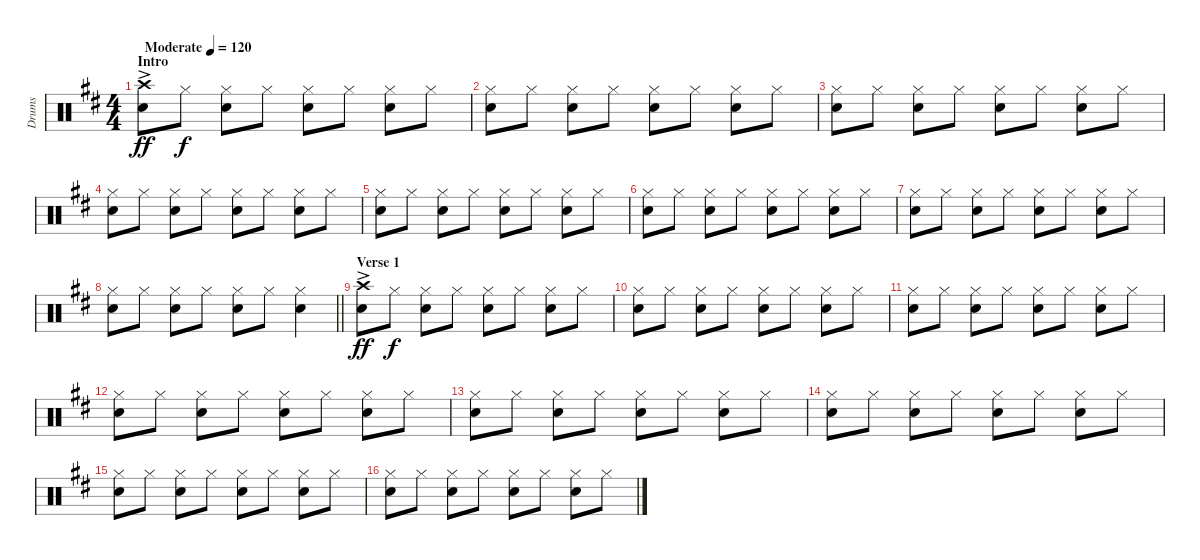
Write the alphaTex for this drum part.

\track ("Drums" "Drums") {instrument percussion}
\staff {score}
\articulation defaults
\ts (4 4)
\section ("" "Intro")
\tempo (120 "Moderate")
\clef neutral
\ks d
("Crash high (hit)"{ac} "Snare (hit) 2").8{dy ff} "Hi-Hat (closed)".8{dy f} ("Hi-Hat (closed)" "Snare (hit) 2").8 "Hi-Hat (closed)".8 ("Hi-Hat (closed)" "Snare (hit) 2").8 "Hi-Hat (closed)".8 ("Hi-Hat (closed)" "Snare (hit) 2").8 "Hi-Hat (closed)".8 |
("Hi-Hat (closed)" "Snare (hit) 2").8 "Hi-Hat (closed)".8 ("Hi-Hat (closed)" "Snare (hit) 2").8 "Hi-Hat (closed)".8 ("Hi-Hat (closed)" "Snare (hit) 2").8 "Hi-Hat (closed)".8 ("Hi-Hat (closed)" "Snare (hit) 2").8 "Hi-Hat (closed)".8 |
("Hi-Hat (closed)" "Snare (hit) 2").8 "Hi-Hat (closed)".8 ("Hi-Hat (closed)" "Snare (hit) 2").8 "Hi-Hat (closed)".8 ("Hi-Hat (closed)" "Snare (hit) 2").8 "Hi-Hat (closed)".8 ("Hi-Hat (closed)" "Snare (hit) 2").8 "Hi-Hat (closed)".8 |
("Hi-Hat (closed)" "Snare (hit) 2").8 "Hi-Hat (closed)".8 ("Hi-Hat (closed)" "Snare (hit) 2").8 "Hi-Hat (closed)".8 ("Hi-Hat (closed)" "Snare (hit) 2").8 "Hi-Hat (closed)".8 ("Hi-Hat (closed)" "Snare (hit) 2").8 "Hi-Hat (closed)".8 |
("Hi-Hat (closed)" "Snare (hit) 2").8 "Hi-Hat (closed)".8 ("Hi-Hat (closed)" "Snare (hit) 2").8 "Hi-Hat (closed)".8 ("Hi-Hat (closed)" "Snare (hit) 2").8 "Hi-Hat (closed)".8 ("Hi-Hat (closed)" "Snare (hit) 2").8 "Hi-Hat (closed)".8 |
("Hi-Hat (closed)" "Snare (hit) 2").8 "Hi-Hat (closed)".8 ("Hi-Hat (closed)" "Snare (hit) 2").8 "Hi-Hat (closed)".8 ("Hi-Hat (closed)" "Snare (hit) 2").8 "Hi-Hat (closed)".8 ("Hi-Hat (closed)" "Snare (hit) 2").8 "Hi-Hat (closed)".8 |
("Hi-Hat (closed)" "Snare (hit) 2").8 "Hi-Hat (closed)".8 ("Hi-Hat (closed)" "Snare (hit) 2").8 "Hi-Hat (closed)".8 ("Hi-Hat (closed)" "Snare (hit) 2").8 "Hi-Hat (closed)".8 ("Hi-Hat (closed)" "Snare (hit) 2").8 "Hi-Hat (closed)".8 |
\barLineRight lightlight
("Hi-Hat (closed)" "Snare (hit) 2").8 "Hi-Hat (closed)".8 ("Hi-Hat (closed)" "Snare (hit) 2").8 "Hi-Hat (closed)".8 ("Hi-Hat (closed)" "Snare (hit) 2").8 "Hi-Hat (closed)".8 ("Hi-Hat (closed)" "Snare (hit) 2").4 |
\section ("" "Verse 1")
("Crash high (hit)"{ac} "Snare (hit) 2").8{dy ff} "Hi-Hat (closed)".8{dy f} ("Hi-Hat (closed)" "Snare (hit) 2").8 "Hi-Hat (closed)".8 ("Hi-Hat (closed)" "Snare (hit) 2").8 "Hi-Hat (closed)".8 ("Hi-Hat (closed)" "Snare (hit) 2").8 "Hi-Hat (closed)".8 |
("Hi-Hat (closed)" "Snare (hit) 2").8 "Hi-Hat (closed)".8 ("Hi-Hat (closed)" "Snare (hit) 2").8 "Hi-Hat (closed)".8 ("Hi-Hat (closed)" "Snare (hit) 2").8 "Hi-Hat (closed)".8 ("Hi-Hat (closed)" "Snare (hit) 2").8 "Hi-Hat (closed)".8 |
("Hi-Hat (closed)" "Snare (hit) 2").8 "Hi-Hat (closed)".8 ("Hi-Hat (closed)" "Snare (hit) 2").8 "Hi-Hat (closed)".8 ("Hi-Hat (closed)" "Snare (hit) 2").8 "Hi-Hat (closed)".8 ("Hi-Hat (closed)" "Snare (hit) 2").8 "Hi-Hat (closed)".8 |
("Hi-Hat (closed)" "Snare (hit) 2").8 "Hi-Hat (closed)".8 ("Hi-Hat (closed)" "Snare (hit) 2").8 "Hi-Hat (closed)".8 ("Hi-Hat (closed)" "Snare (hit) 2").8 "Hi-Hat (closed)".8 ("Hi-Hat (closed)" "Snare (hit) 2").8 "Hi-Hat (closed)".8 |
("Hi-Hat (closed)" "Snare (hit) 2").8 "Hi-Hat (closed)".8 ("Hi-Hat (closed)" "Snare (hit) 2").8 "Hi-Hat (closed)".8 ("Hi-Hat (closed)" "Snare (hit) 2").8 "Hi-Hat (closed)".8 ("Hi-Hat (closed)" "Snare (hit) 2").8 "Hi-Hat (closed)".8 |
("Hi-Hat (closed)" "Snare (hit) 2").8 "Hi-Hat (closed)".8 ("Hi-Hat (closed)" "Snare (hit) 2").8 "Hi-Hat (closed)".8 ("Hi-Hat (closed)" "Snare (hit) 2").8 "Hi-Hat (closed)".8 ("Hi-Hat (closed)" "Snare (hit) 2").8 "Hi-Hat (closed)".8 |
("Hi-Hat (closed)" "Snare (hit) 2").8 "Hi-Hat (closed)".8 ("Hi-Hat (closed)" "Snare (hit) 2").8 "Hi-Hat (closed)".8 ("Hi-Hat (closed)" "Snare (hit) 2").8 "Hi-Hat (closed)".8 ("Hi-Hat (closed)" "Snare (hit) 2").8 "Hi-Hat (closed)".8 |
("Hi-Hat (closed)" "Snare (hit) 2").8 "Hi-Hat (closed)".8 ("Hi-Hat (closed)" "Snare (hit) 2").8 "Hi-Hat (closed)".8 ("Hi-Hat (closed)" "Snare (hit) 2").8 "Hi-Hat (closed)".8 ("Hi-Hat (closed)" "Snare (hit) 2").8 "Hi-Hat (closed)".8
